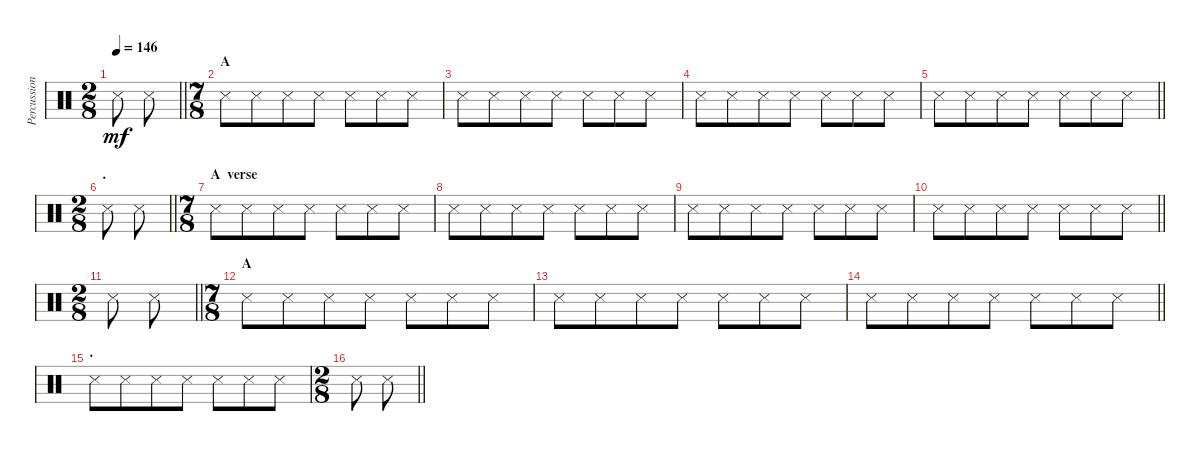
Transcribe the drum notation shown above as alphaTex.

\track ("Percussion" "Percussion") {instrument percussion}
\staff {score}
\articulation defaults
\ts (2 8)
\tempo 146
\clef neutral
\barLineRight lightlight
\ks c "Metronome (hit)".8{dy mf} "Metronome (hit)".8
|
\ts (7 8)
\section ("" "A")
"Metronome (hit)".8 "Metronome (hit)".8 "Metronome (hit)".8 "Metronome (hit)".8 "Metronome (hit)".8 "Metronome (hit)".8 "Metronome (hit)".8 |
"Metronome (hit)".8 "Metronome (hit)".8 "Metronome (hit)".8 "Metronome (hit)".8 "Metronome (hit)".8 "Metronome (hit)".8 "Metronome (hit)".8 |
"Metronome (hit)".8 "Metronome (hit)".8 "Metronome (hit)".8 "Metronome (hit)".8 "Metronome (hit)".8 "Metronome (hit)".8 "Metronome (hit)".8 |
\barLineRight lightlight "Metronome (hit)".8 "Metronome (hit)".8 "Metronome (hit)".8 "Metronome (hit)".8 "Metronome (hit)".8 "Metronome (hit)".8 "Metronome (hit)".8
|
\ts (2 8)
\section ("" ".")
\barLineRight lightlight "Metronome (hit)".8 "Metronome (hit)".8
|
\ts (7 8)
\section ("" "A  verse")
"Metronome (hit)".8 "Metronome (hit)".8 "Metronome (hit)".8 "Metronome (hit)".8 "Metronome (hit)".8 "Metronome (hit)".8 "Metronome (hit)".8 |
"Metronome (hit)".8 "Metronome (hit)".8 "Metronome (hit)".8 "Metronome (hit)".8 "Metronome (hit)".8 "Metronome (hit)".8 "Metronome (hit)".8 |
"Metronome (hit)".8 "Metronome (hit)".8 "Metronome (hit)".8 "Metronome (hit)".8 "Metronome (hit)".8 "Metronome (hit)".8 "Metronome (hit)".8 |
\barLineRight lightlight "Metronome (hit)".8 "Metronome (hit)".8 "Metronome (hit)".8 "Metronome (hit)".8 "Metronome (hit)".8 "Metronome (hit)".8 "Metronome (hit)".8
|
\ts (2 8)
\barLineRight lightlight "Metronome (hit)".8 "Metronome (hit)".8
|
\ts (7 8)
\section ("" "A")
"Metronome (hit)".8 "Metronome (hit)".8 "Metronome (hit)".8 "Metronome (hit)".8 "Metronome (hit)".8 "Metronome (hit)".8 "Metronome (hit)".8 |
"Metronome (hit)".8 "Metronome (hit)".8 "Metronome (hit)".8 "Metronome (hit)".8 "Metronome (hit)".8 "Metronome (hit)".8 "Metronome (hit)".8 |
\barLineRight lightlight "Metronome (hit)".8 "Metronome (hit)".8 "Metronome (hit)".8 "Metronome (hit)".8 "Metronome (hit)".8 "Metronome (hit)".8 "Metronome (hit)".8
|
\section ("" ".")
"Metronome (hit)".8 "Metronome (hit)".8 "Metronome (hit)".8 "Metronome (hit)".8 "Metronome (hit)".8 "Metronome (hit)".8 "Metronome (hit)".8 |
\ts (2 8)
\barLineRight lightlight "Metronome (hit)".8 "Metronome (hit)".8
